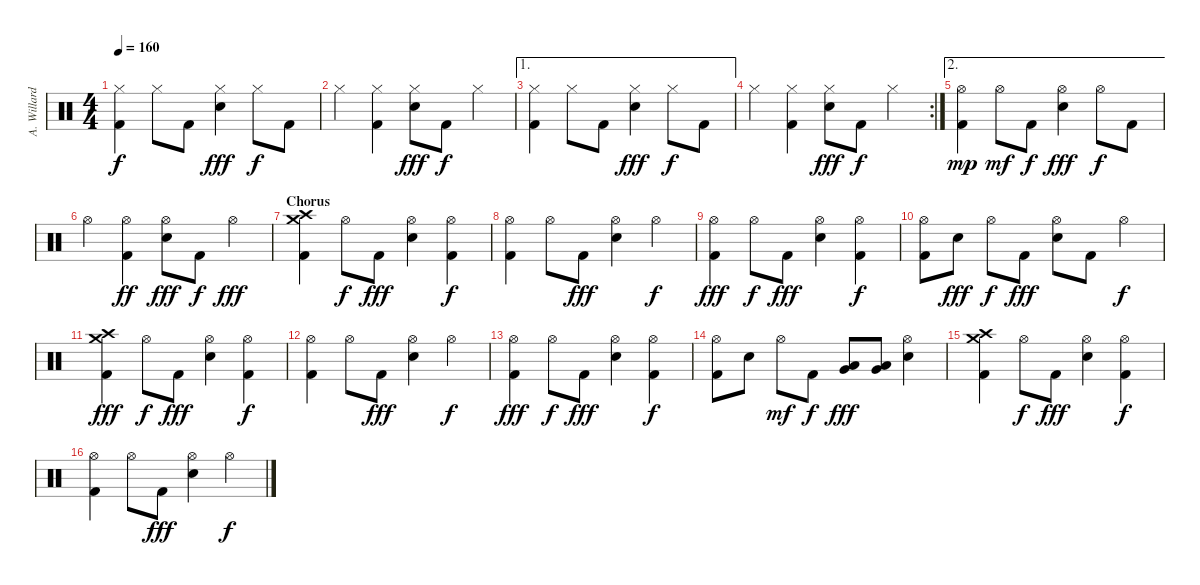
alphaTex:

\track ("A. Willard (Drums)" "A. Willard") {instrument percussion}
\staff {score}
\articulation defaults
\ts (4 4)
\tempo 160
\clef neutral
\ks c
("Hi-Hat (closed)" "Kick (hit) 2").4{dy f} "Hi-Hat (closed)".8 "Kick (hit) 2".8 ("Hi-Hat (closed)" "Electric Snare (hit)").4{dy fff} "Hi-Hat (closed)".8{dy f} "Kick (hit) 2".8 |
"Hi-Hat (closed)".4 ("Hi-Hat (closed)" "Kick (hit) 2").4 ("Hi-Hat (closed)" "Electric Snare (hit)").8{dy fff} "Kick (hit) 2".8{dy f} "Hi-Hat (closed)".4 |
\ae 1
("Hi-Hat (closed)" "Kick (hit) 2").4 "Hi-Hat (closed)".8 "Kick (hit) 2".8 ("Hi-Hat (closed)" "Electric Snare (hit)").4{dy fff} "Hi-Hat (closed)".8{dy f} "Kick (hit) 2".8 |
\rc 2 "Hi-Hat (closed)".4
("Hi-Hat (closed)" "Kick (hit) 2").4 ("Hi-Hat (closed)" "Electric Snare (hit)").8{dy fff} "Kick (hit) 2".8{dy f} "Hi-Hat (closed)".4 |
\ae 2
("Hi-Hat (open)" "Kick (hit) 2").4{dy mp} "Hi-Hat (open)".8{dy mf} "Kick (hit) 2".8{dy f} ("Hi-Hat (open)" "Electric Snare (hit)").4{dy fff} "Hi-Hat (open)".8{dy f} "Kick (hit) 2".8 |
"Hi-Hat (open)".4 ("Hi-Hat (open)" "Kick (hit) 2").4{dy ff} ("Hi-Hat (open)" "Electric Snare (hit)").8{dy fff} "Kick (hit) 2".8{dy f} "Hi-Hat (open)".4{dy fff} |
\section ("" "Chorus")
("Crash high (hit)" "Kick (hit) 2" "Crash medium (hit)").4 "Hi-Hat (open)".8{dy f} "Kick (hit) 2".8{dy fff} ("Hi-Hat (open)" "Electric Snare (hit)").4 ("Hi-Hat (open)" "Kick (hit) 2").4{dy f} |
("Hi-Hat (open)" "Kick (hit) 2").4 "Hi-Hat (open)".8 "Kick (hit) 2".8{dy fff} ("Hi-Hat (open)" "Electric Snare (hit)").4 "Hi-Hat (open)".4{dy f} |
("Hi-Hat (open)" "Kick (hit) 2").4{dy fff} "Hi-Hat (open)".8{dy f} "Kick (hit) 2".8{dy fff} ("Hi-Hat (open)" "Electric Snare (hit)").4 ("Hi-Hat (open)" "Kick (hit) 2").4{dy f} |
("Hi-Hat (open)" "Kick (hit) 2").8 "Electric Snare (hit)".8{dy fff} "Hi-Hat (open)".8{dy f} "Kick (hit) 2".8{dy fff} ("Hi-Hat (open)" "Electric Snare (hit)").8 "Kick (hit) 2".8 "Hi-Hat (open)".4{dy f} |
("Crash high (hit)" "Kick (hit) 2" "Crash medium (hit)").4{dy fff} "Hi-Hat (open)".8{dy f} "Kick (hit) 2".8{dy fff} ("Hi-Hat (open)" "Electric Snare (hit)").4 ("Hi-Hat (open)" "Kick (hit) 2").4{dy f} |
("Hi-Hat (open)" "Kick (hit) 2").4 "Hi-Hat (open)".8 "Kick (hit) 2".8{dy fff} ("Hi-Hat (open)" "Electric Snare (hit)").4 "Hi-Hat (open)".4{dy f} |
("Hi-Hat (open)" "Kick (hit) 2").4{dy fff} "Hi-Hat (open)".8{dy f} "Kick (hit) 2".8{dy fff} ("Hi-Hat (open)" "Electric Snare (hit)").4 ("Hi-Hat (open)" "Kick (hit) 2").4{dy f} |
("Hi-Hat (open)" "Kick (hit) 2").8 "Electric Snare (hit)".8 "Hi-Hat (open)".8{dy mf} "Kick (hit) 2".8{dy f} ("Very Low Tom (hit)" "Low Floor Tom (hit)").8{dy fff} ("Very Low Tom (hit)" "Low Floor Tom (hit)").8 ("Hi-Hat (open)" "Electric Snare (hit)").4 |
("Crash high (hit)" "Kick (hit) 2" "Crash medium (hit)").4 "Hi-Hat (open)".8{dy f} "Kick (hit) 2".8{dy fff} ("Hi-Hat (open)" "Electric Snare (hit)").4 ("Hi-Hat (open)" "Kick (hit) 2").4{dy f} |
("Hi-Hat (open)" "Kick (hit) 2").4 "Hi-Hat (open)".8 "Kick (hit) 2".8{dy fff} ("Hi-Hat (open)" "Electric Snare (hit)").4 "Hi-Hat (open)".4{dy f}
